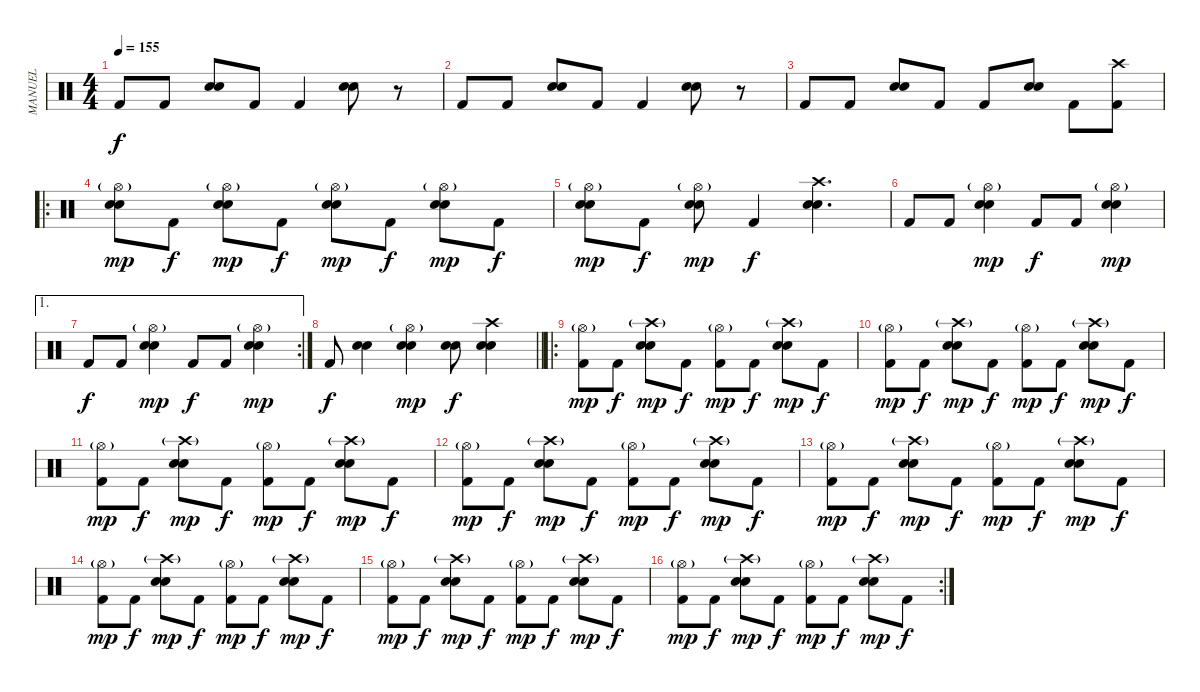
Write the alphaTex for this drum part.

\track ("MANUEL" "MANUEL") {instrument percussion}
\staff {score}
\articulation defaults
\ts (4 4)
\tempo 155
\clef neutral
\ks c "Kick (hit) 2".8{dy f} "Kick (hit) 2".8
("Electric Snare (hit)" "Snare (hit) 2").8 "Kick (hit) 2".8 "Kick (hit) 2".4 ("Electric Snare (hit)" "Snare (hit) 2").8 r.8 |
"Kick (hit) 2".8 "Kick (hit) 2".8 ("Electric Snare (hit)" "Snare (hit) 2").8 "Kick (hit) 2".8 "Kick (hit) 2".4 ("Electric Snare (hit)" "Snare (hit) 2").8 r.8 |
"Kick (hit) 2".8 "Kick (hit) 2".8 ("Electric Snare (hit)" "Snare (hit) 2").8 "Kick (hit) 2".8 "Kick (hit) 2".8 ("Electric Snare (hit)" "Snare (hit) 2").8 "Kick (hit) 2".8 ("Kick (hit) 2" "Crash high (hit)").8 |
\ro
("Hi-Hat (open)"{g} "Snare (hit) 2" "Electric Snare (hit)").8{dy mp} "Kick (hit) 2".8{dy f} ("Hi-Hat (open)"{g} "Snare (hit) 2" "Electric Snare (hit)").8{dy mp} "Kick (hit) 2".8{dy f} ("Hi-Hat (open)"{g} "Snare (hit) 2" "Electric Snare (hit)").8{dy mp} "Kick (hit) 2".8{dy f} ("Hi-Hat (open)"{g} "Snare (hit) 2" "Electric Snare (hit)").8{dy mp} "Kick (hit) 2".8{dy f} |
("Hi-Hat (open)"{g} "Snare (hit) 2" "Electric Snare (hit)").8{dy mp} "Kick (hit) 2".8{dy f} ("Hi-Hat (open)"{g} "Snare (hit) 2" "Electric Snare (hit)").8{dy mp} "Kick (hit) 2".4{dy f} ("Crash high (hit)" "Snare (hit) 2" "Electric Snare (hit)").4{d} |
"Kick (hit) 2".8 "Kick (hit) 2".8 ("Hi-Hat (open)"{g} "Snare (hit) 2" "Electric Snare (hit)").4{dy mp} "Kick (hit) 2".8{dy f} "Kick (hit) 2".8 ("Hi-Hat (open)"{g} "Snare (hit) 2" "Electric Snare (hit)").4{dy mp} |
\ae 1
\rc 2 "Kick (hit) 2".8{dy f} "Kick (hit) 2".8
("Hi-Hat (open)"{g} "Snare (hit) 2" "Electric Snare (hit)").4{dy mp} "Kick (hit) 2".8{dy f} "Kick (hit) 2".8 ("Hi-Hat (open)"{g} "Snare (hit) 2" "Electric Snare (hit)").4{dy mp} |
\barLineRight lightlight "Kick (hit) 2".8{dy f}
("Snare (hit) 2" "Electric Snare (hit)").4 ("Hi-Hat (open)"{g} "Snare (hit) 2" "Electric Snare (hit)").4{dy mp} ("Snare (hit) 2" "Electric Snare (hit)").8{dy f} ("Crash high (hit)" "Snare (hit) 2" "Electric Snare (hit)").4 |
\ro
("Hi-Hat (open)"{g} "Kick (hit) 2").8{dy mp} "Kick (hit) 2".8{dy f} ("Crash high (hit)"{g} "Snare (hit) 2" "Electric Snare (hit)").8{dy mp} "Kick (hit) 2".8{dy f} ("Hi-Hat (open)"{g} "Kick (hit) 2").8{dy mp} "Kick (hit) 2".8{dy f} ("Crash high (hit)"{g} "Snare (hit) 2" "Electric Snare (hit)").8{dy mp} "Kick (hit) 2".8{dy f} |
("Hi-Hat (open)"{g} "Kick (hit) 2").8{dy mp} "Kick (hit) 2".8{dy f} ("Crash high (hit)"{g} "Snare (hit) 2" "Electric Snare (hit)").8{dy mp} "Kick (hit) 2".8{dy f} ("Hi-Hat (open)"{g} "Kick (hit) 2").8{dy mp} "Kick (hit) 2".8{dy f} ("Crash high (hit)"{g} "Snare (hit) 2" "Electric Snare (hit)").8{dy mp} "Kick (hit) 2".8{dy f} |
("Hi-Hat (open)"{g} "Kick (hit) 2").8{dy mp} "Kick (hit) 2".8{dy f} ("Crash high (hit)"{g} "Snare (hit) 2" "Electric Snare (hit)").8{dy mp} "Kick (hit) 2".8{dy f} ("Hi-Hat (open)"{g} "Kick (hit) 2").8{dy mp} "Kick (hit) 2".8{dy f} ("Crash high (hit)"{g} "Snare (hit) 2" "Electric Snare (hit)").8{dy mp} "Kick (hit) 2".8{dy f} |
("Hi-Hat (open)"{g} "Kick (hit) 2").8{dy mp} "Kick (hit) 2".8{dy f} ("Crash high (hit)"{g} "Snare (hit) 2" "Electric Snare (hit)").8{dy mp} "Kick (hit) 2".8{dy f} ("Hi-Hat (open)"{g} "Kick (hit) 2").8{dy mp} "Kick (hit) 2".8{dy f} ("Crash high (hit)"{g} "Snare (hit) 2" "Electric Snare (hit)").8{dy mp} "Kick (hit) 2".8{dy f} |
("Hi-Hat (open)"{g} "Kick (hit) 2").8{dy mp} "Kick (hit) 2".8{dy f} ("Crash high (hit)"{g} "Snare (hit) 2" "Electric Snare (hit)").8{dy mp} "Kick (hit) 2".8{dy f} ("Hi-Hat (open)"{g} "Kick (hit) 2").8{dy mp} "Kick (hit) 2".8{dy f} ("Crash high (hit)"{g} "Snare (hit) 2" "Electric Snare (hit)").8{dy mp} "Kick (hit) 2".8{dy f} |
("Hi-Hat (open)"{g} "Kick (hit) 2").8{dy mp} "Kick (hit) 2".8{dy f} ("Crash high (hit)"{g} "Snare (hit) 2" "Electric Snare (hit)").8{dy mp} "Kick (hit) 2".8{dy f} ("Hi-Hat (open)"{g} "Kick (hit) 2").8{dy mp} "Kick (hit) 2".8{dy f} ("Crash high (hit)"{g} "Snare (hit) 2" "Electric Snare (hit)").8{dy mp} "Kick (hit) 2".8{dy f} |
("Hi-Hat (open)"{g} "Kick (hit) 2").8{dy mp} "Kick (hit) 2".8{dy f} ("Crash high (hit)"{g} "Snare (hit) 2" "Electric Snare (hit)").8{dy mp} "Kick (hit) 2".8{dy f} ("Hi-Hat (open)"{g} "Kick (hit) 2").8{dy mp} "Kick (hit) 2".8{dy f} ("Crash high (hit)"{g} "Snare (hit) 2" "Electric Snare (hit)").8{dy mp} "Kick (hit) 2".8{dy f} |
\rc 2
("Hi-Hat (open)"{g} "Kick (hit) 2").8{dy mp} "Kick (hit) 2".8{dy f} ("Crash high (hit)"{g} "Snare (hit) 2" "Electric Snare (hit)").8{dy mp} "Kick (hit) 2".8{dy f} ("Hi-Hat (open)"{g} "Kick (hit) 2").8{dy mp} "Kick (hit) 2".8{dy f} ("Crash high (hit)"{g} "Snare (hit) 2" "Electric Snare (hit)").8{dy mp} "Kick (hit) 2".8{dy f}
